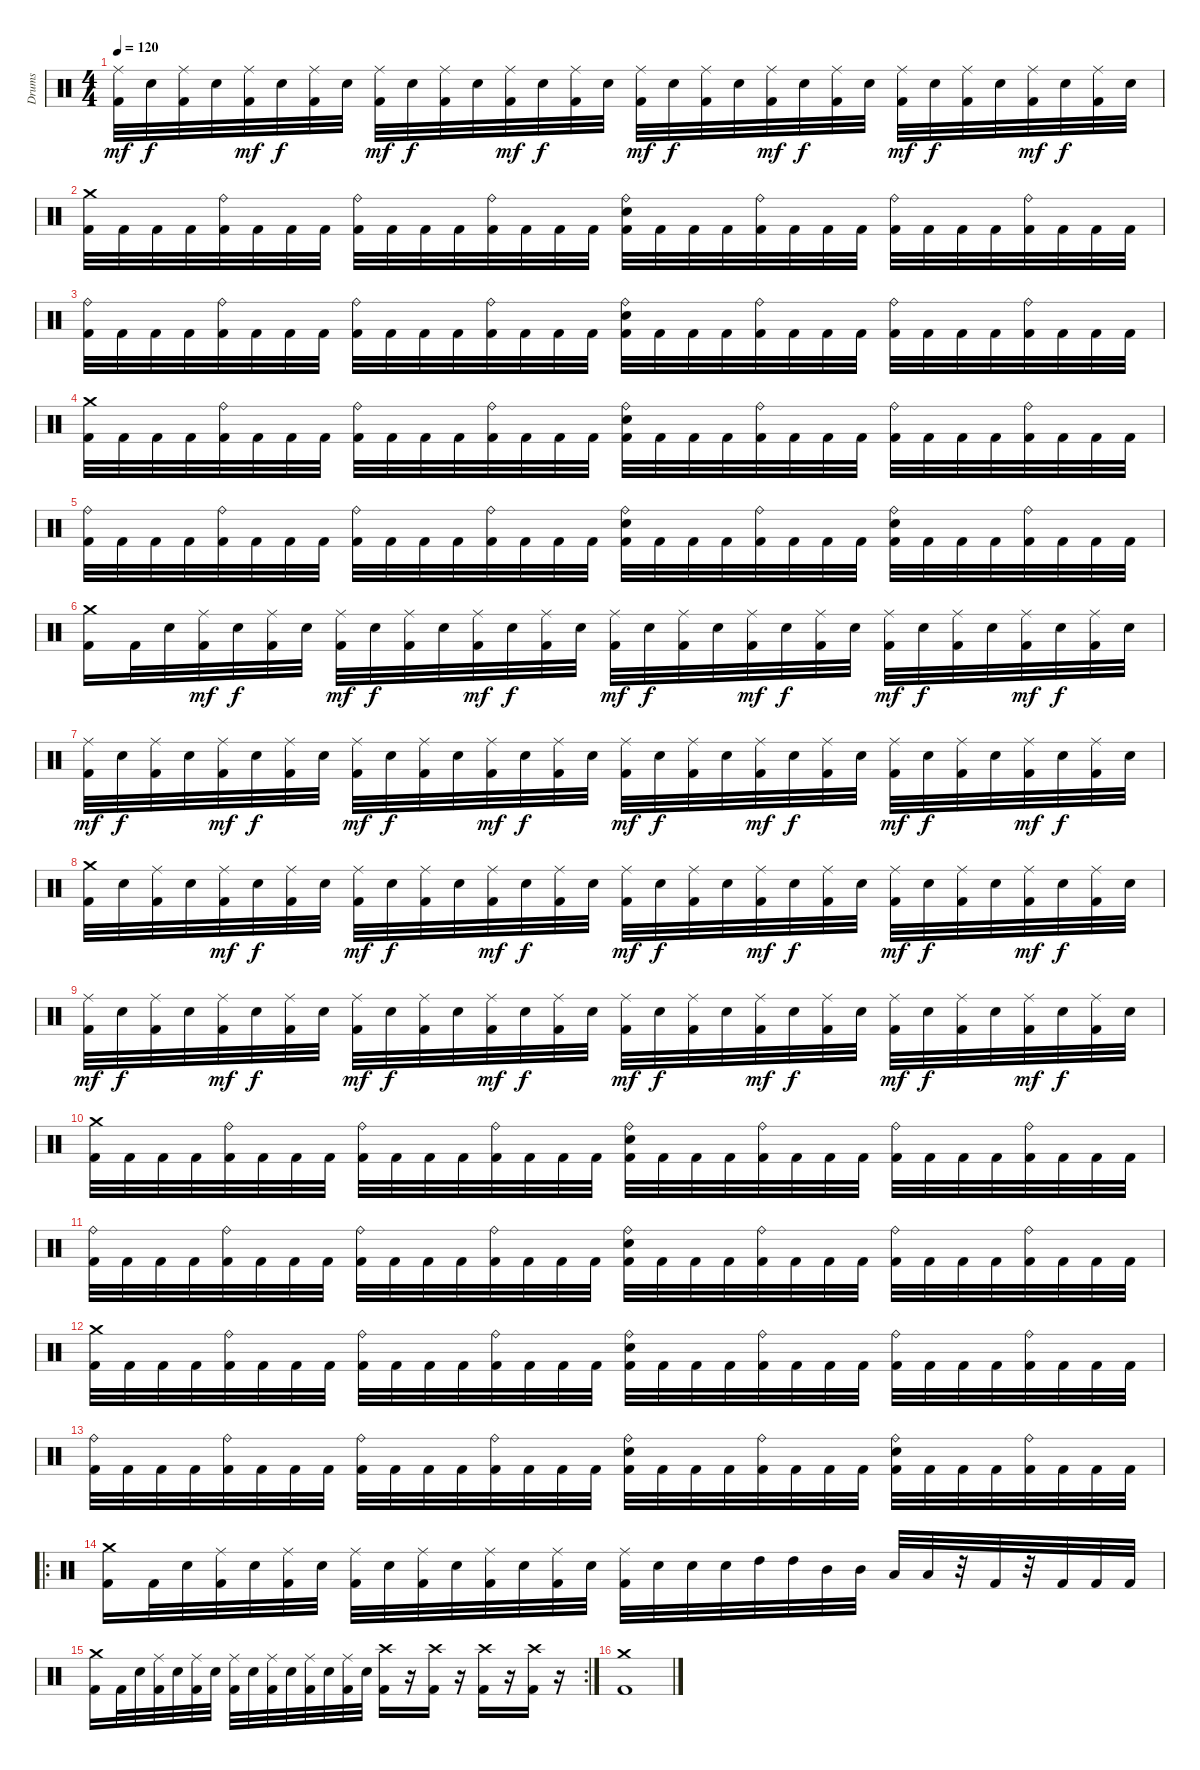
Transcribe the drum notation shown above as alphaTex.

\track ("Drums" "Drums") {instrument percussion}
\staff {score}
\articulation defaults
\ts (4 4)
\tempo 120
\clef neutral
\ks c
("Kick (hit) 2" "Ride (middle)").32{dy mf} "Electric Snare (hit)".32{dy f} ("Kick (hit) 2" "Ride (middle)").32 "Electric Snare (hit)".32 ("Kick (hit) 2" "Ride (middle)").32{dy mf} "Electric Snare (hit)".32{dy f} ("Kick (hit) 2" "Ride (middle)").32 "Electric Snare (hit)".32 ("Kick (hit) 2" "Ride (middle)").32{dy mf} "Electric Snare (hit)".32{dy f} ("Kick (hit) 2" "Ride (middle)").32 "Electric Snare (hit)".32 ("Kick (hit) 2" "Ride (middle)").32{dy mf} "Electric Snare (hit)".32{dy f} ("Kick (hit) 2" "Ride (middle)").32 "Electric Snare (hit)".32 ("Kick (hit) 2" "Ride (middle)").32{dy mf} "Electric Snare (hit)".32{dy f} ("Kick (hit) 2" "Ride (middle)").32 "Electric Snare (hit)".32 ("Kick (hit) 2" "Ride (middle)").32{dy mf} "Electric Snare (hit)".32{dy f} ("Kick (hit) 2" "Ride (middle)").32 "Electric Snare (hit)".32 ("Kick (hit) 2" "Ride (middle)").32{dy mf} "Electric Snare (hit)".32{dy f} ("Kick (hit) 2" "Ride (middle)").32 "Electric Snare (hit)".32 ("Kick (hit) 2" "Ride (middle)").32{dy mf} "Electric Snare (hit)".32{dy f} ("Kick (hit) 2" "Ride (middle)").32 "Electric Snare (hit)".32 |
("Crash medium (hit)" "Kick (hit) 2").32 "Kick (hit) 2".32 "Kick (hit) 2".32 "Kick (hit) 2".32 ("Ride (bell)" "Kick (hit) 2").32 "Kick (hit) 2".32 "Kick (hit) 2".32 "Kick (hit) 2".32 ("Ride (bell)" "Kick (hit) 2").32 "Kick (hit) 2".32 "Kick (hit) 2".32 "Kick (hit) 2".32 ("Ride (bell)" "Kick (hit) 2").32 "Kick (hit) 2".32 "Kick (hit) 2".32 "Kick (hit) 2".32 ("Ride (bell)" "Electric Snare (hit)" "Kick (hit) 2").32 "Kick (hit) 2".32 "Kick (hit) 2".32 "Kick (hit) 2".32 ("Ride (bell)" "Kick (hit) 2").32 "Kick (hit) 2".32 "Kick (hit) 2".32 "Kick (hit) 2".32 ("Ride (bell)" "Kick (hit) 2").32 "Kick (hit) 2".32 "Kick (hit) 2".32 "Kick (hit) 2".32 ("Ride (bell)" "Kick (hit) 2").32 "Kick (hit) 2".32 "Kick (hit) 2".32 "Kick (hit) 2".32 |
("Ride (bell)" "Kick (hit) 2").32 "Kick (hit) 2".32 "Kick (hit) 2".32 "Kick (hit) 2".32 ("Ride (bell)" "Kick (hit) 2").32 "Kick (hit) 2".32 "Kick (hit) 2".32 "Kick (hit) 2".32 ("Ride (bell)" "Kick (hit) 2").32 "Kick (hit) 2".32 "Kick (hit) 2".32 "Kick (hit) 2".32 ("Ride (bell)" "Kick (hit) 2").32 "Kick (hit) 2".32 "Kick (hit) 2".32 "Kick (hit) 2".32 ("Ride (bell)" "Electric Snare (hit)" "Kick (hit) 2").32 "Kick (hit) 2".32 "Kick (hit) 2".32 "Kick (hit) 2".32 ("Ride (bell)" "Kick (hit) 2").32 "Kick (hit) 2".32 "Kick (hit) 2".32 "Kick (hit) 2".32 ("Ride (bell)" "Kick (hit) 2").32 "Kick (hit) 2".32 "Kick (hit) 2".32 "Kick (hit) 2".32 ("Ride (bell)" "Kick (hit) 2").32 "Kick (hit) 2".32 "Kick (hit) 2".32 "Kick (hit) 2".32 |
("Crash medium (hit)" "Kick (hit) 2").32 "Kick (hit) 2".32 "Kick (hit) 2".32 "Kick (hit) 2".32 ("Ride (bell)" "Kick (hit) 2").32 "Kick (hit) 2".32 "Kick (hit) 2".32 "Kick (hit) 2".32 ("Ride (bell)" "Kick (hit) 2").32 "Kick (hit) 2".32 "Kick (hit) 2".32 "Kick (hit) 2".32 ("Ride (bell)" "Kick (hit) 2").32 "Kick (hit) 2".32 "Kick (hit) 2".32 "Kick (hit) 2".32 ("Ride (bell)" "Electric Snare (hit)" "Kick (hit) 2").32 "Kick (hit) 2".32 "Kick (hit) 2".32 "Kick (hit) 2".32 ("Ride (bell)" "Kick (hit) 2").32 "Kick (hit) 2".32 "Kick (hit) 2".32 "Kick (hit) 2".32 ("Ride (bell)" "Kick (hit) 2").32 "Kick (hit) 2".32 "Kick (hit) 2".32 "Kick (hit) 2".32 ("Ride (bell)" "Kick (hit) 2").32 "Kick (hit) 2".32 "Kick (hit) 2".32 "Kick (hit) 2".32 |
("Ride (bell)" "Kick (hit) 2").32 "Kick (hit) 2".32 "Kick (hit) 2".32 "Kick (hit) 2".32 ("Ride (bell)" "Kick (hit) 2").32 "Kick (hit) 2".32 "Kick (hit) 2".32 "Kick (hit) 2".32 ("Ride (bell)" "Kick (hit) 2").32 "Kick (hit) 2".32 "Kick (hit) 2".32 "Kick (hit) 2".32 ("Ride (bell)" "Kick (hit) 2").32 "Kick (hit) 2".32 "Kick (hit) 2".32 "Kick (hit) 2".32 ("Ride (bell)" "Electric Snare (hit)" "Kick (hit) 2").32 "Kick (hit) 2".32 "Kick (hit) 2".32 "Kick (hit) 2".32 ("Ride (bell)" "Kick (hit) 2").32 "Kick (hit) 2".32 "Kick (hit) 2".32 "Kick (hit) 2".32 ("Ride (bell)" "Electric Snare (hit)" "Kick (hit) 2").32 "Kick (hit) 2".32 "Kick (hit) 2".32 "Kick (hit) 2".32 ("Ride (bell)" "Kick (hit) 2").32 "Kick (hit) 2".32 "Kick (hit) 2".32 "Kick (hit) 2".32 |
("Kick (hit) 2" "Crash medium (hit)").16 "Kick (hit) 2".32 "Electric Snare (hit)".32 ("Kick (hit) 2" "Ride (middle)").32{dy mf} "Electric Snare (hit)".32{dy f} ("Kick (hit) 2" "Ride (middle)").32 "Electric Snare (hit)".32 ("Kick (hit) 2" "Ride (middle)").32{dy mf} "Electric Snare (hit)".32{dy f} ("Kick (hit) 2" "Ride (middle)").32 "Electric Snare (hit)".32 ("Kick (hit) 2" "Ride (middle)").32{dy mf} "Electric Snare (hit)".32{dy f} ("Kick (hit) 2" "Ride (middle)").32 "Electric Snare (hit)".32 ("Kick (hit) 2" "Ride (middle)").32{dy mf} "Electric Snare (hit)".32{dy f} ("Kick (hit) 2" "Ride (middle)").32 "Electric Snare (hit)".32 ("Kick (hit) 2" "Ride (middle)").32{dy mf} "Electric Snare (hit)".32{dy f} ("Kick (hit) 2" "Ride (middle)").32 "Electric Snare (hit)".32 ("Kick (hit) 2" "Ride (middle)").32{dy mf} "Electric Snare (hit)".32{dy f} ("Kick (hit) 2" "Ride (middle)").32 "Electric Snare (hit)".32 ("Kick (hit) 2" "Ride (middle)").32{dy mf} "Electric Snare (hit)".32{dy f} ("Kick (hit) 2" "Ride (middle)").32 "Electric Snare (hit)".32 |
("Kick (hit) 2" "Ride (middle)").32{dy mf} "Electric Snare (hit)".32{dy f} ("Kick (hit) 2" "Ride (middle)").32 "Electric Snare (hit)".32 ("Kick (hit) 2" "Ride (middle)").32{dy mf} "Electric Snare (hit)".32{dy f} ("Kick (hit) 2" "Ride (middle)").32 "Electric Snare (hit)".32 ("Kick (hit) 2" "Ride (middle)").32{dy mf} "Electric Snare (hit)".32{dy f} ("Kick (hit) 2" "Ride (middle)").32 "Electric Snare (hit)".32 ("Kick (hit) 2" "Ride (middle)").32{dy mf} "Electric Snare (hit)".32{dy f} ("Kick (hit) 2" "Ride (middle)").32 "Electric Snare (hit)".32 ("Kick (hit) 2" "Ride (middle)").32{dy mf} "Electric Snare (hit)".32{dy f} ("Kick (hit) 2" "Ride (middle)").32 "Electric Snare (hit)".32 ("Kick (hit) 2" "Ride (middle)").32{dy mf} "Electric Snare (hit)".32{dy f} ("Kick (hit) 2" "Ride (middle)").32 "Electric Snare (hit)".32 ("Kick (hit) 2" "Ride (middle)").32{dy mf} "Electric Snare (hit)".32{dy f} ("Kick (hit) 2" "Ride (middle)").32 "Electric Snare (hit)".32 ("Kick (hit) 2" "Ride (middle)").32{dy mf} "Electric Snare (hit)".32{dy f} ("Kick (hit) 2" "Ride (middle)").32 "Electric Snare (hit)".32 |
("Kick (hit) 2" "Crash medium (hit)").32 "Electric Snare (hit)".32 ("Kick (hit) 2" "Ride (middle)").32 "Electric Snare (hit)".32 ("Kick (hit) 2" "Ride (middle)").32{dy mf} "Electric Snare (hit)".32{dy f} ("Kick (hit) 2" "Ride (middle)").32 "Electric Snare (hit)".32 ("Kick (hit) 2" "Ride (middle)").32{dy mf} "Electric Snare (hit)".32{dy f} ("Kick (hit) 2" "Ride (middle)").32 "Electric Snare (hit)".32 ("Kick (hit) 2" "Ride (middle)").32{dy mf} "Electric Snare (hit)".32{dy f} ("Kick (hit) 2" "Ride (middle)").32 "Electric Snare (hit)".32 ("Kick (hit) 2" "Ride (middle)").32{dy mf} "Electric Snare (hit)".32{dy f} ("Kick (hit) 2" "Ride (middle)").32 "Electric Snare (hit)".32 ("Kick (hit) 2" "Ride (middle)").32{dy mf} "Electric Snare (hit)".32{dy f} ("Kick (hit) 2" "Ride (middle)").32 "Electric Snare (hit)".32 ("Kick (hit) 2" "Ride (middle)").32{dy mf} "Electric Snare (hit)".32{dy f} ("Kick (hit) 2" "Ride (middle)").32 "Electric Snare (hit)".32 ("Kick (hit) 2" "Ride (middle)").32{dy mf} "Electric Snare (hit)".32{dy f} ("Kick (hit) 2" "Ride (middle)").32 "Electric Snare (hit)".32 |
("Kick (hit) 2" "Ride (middle)").32{dy mf} "Electric Snare (hit)".32{dy f} ("Kick (hit) 2" "Ride (middle)").32 "Electric Snare (hit)".32 ("Kick (hit) 2" "Ride (middle)").32{dy mf} "Electric Snare (hit)".32{dy f} ("Kick (hit) 2" "Ride (middle)").32 "Electric Snare (hit)".32 ("Kick (hit) 2" "Ride (middle)").32{dy mf} "Electric Snare (hit)".32{dy f} ("Kick (hit) 2" "Ride (middle)").32 "Electric Snare (hit)".32 ("Kick (hit) 2" "Ride (middle)").32{dy mf} "Electric Snare (hit)".32{dy f} ("Kick (hit) 2" "Ride (middle)").32 "Electric Snare (hit)".32 ("Kick (hit) 2" "Ride (middle)").32{dy mf} "Electric Snare (hit)".32{dy f} ("Kick (hit) 2" "Ride (middle)").32 "Electric Snare (hit)".32 ("Kick (hit) 2" "Ride (middle)").32{dy mf} "Electric Snare (hit)".32{dy f} ("Kick (hit) 2" "Ride (middle)").32 "Electric Snare (hit)".32 ("Kick (hit) 2" "Ride (middle)").32{dy mf} "Electric Snare (hit)".32{dy f} ("Kick (hit) 2" "Ride (middle)").32 "Electric Snare (hit)".32 ("Kick (hit) 2" "Ride (middle)").32{dy mf} "Electric Snare (hit)".32{dy f} ("Kick (hit) 2" "Ride (middle)").32 "Electric Snare (hit)".32 |
("Crash medium (hit)" "Kick (hit) 2").32 "Kick (hit) 2".32 "Kick (hit) 2".32 "Kick (hit) 2".32 ("Ride (bell)" "Kick (hit) 2").32 "Kick (hit) 2".32 "Kick (hit) 2".32 "Kick (hit) 2".32 ("Ride (bell)" "Kick (hit) 2").32 "Kick (hit) 2".32 "Kick (hit) 2".32 "Kick (hit) 2".32 ("Ride (bell)" "Kick (hit) 2").32 "Kick (hit) 2".32 "Kick (hit) 2".32 "Kick (hit) 2".32 ("Ride (bell)" "Electric Snare (hit)" "Kick (hit) 2").32 "Kick (hit) 2".32 "Kick (hit) 2".32 "Kick (hit) 2".32 ("Ride (bell)" "Kick (hit) 2").32 "Kick (hit) 2".32 "Kick (hit) 2".32 "Kick (hit) 2".32 ("Ride (bell)" "Kick (hit) 2").32 "Kick (hit) 2".32 "Kick (hit) 2".32 "Kick (hit) 2".32 ("Ride (bell)" "Kick (hit) 2").32 "Kick (hit) 2".32 "Kick (hit) 2".32 "Kick (hit) 2".32 |
("Ride (bell)" "Kick (hit) 2").32 "Kick (hit) 2".32 "Kick (hit) 2".32 "Kick (hit) 2".32 ("Ride (bell)" "Kick (hit) 2").32 "Kick (hit) 2".32 "Kick (hit) 2".32 "Kick (hit) 2".32 ("Ride (bell)" "Kick (hit) 2").32 "Kick (hit) 2".32 "Kick (hit) 2".32 "Kick (hit) 2".32 ("Ride (bell)" "Kick (hit) 2").32 "Kick (hit) 2".32 "Kick (hit) 2".32 "Kick (hit) 2".32 ("Ride (bell)" "Electric Snare (hit)" "Kick (hit) 2").32 "Kick (hit) 2".32 "Kick (hit) 2".32 "Kick (hit) 2".32 ("Ride (bell)" "Kick (hit) 2").32 "Kick (hit) 2".32 "Kick (hit) 2".32 "Kick (hit) 2".32 ("Ride (bell)" "Kick (hit) 2").32 "Kick (hit) 2".32 "Kick (hit) 2".32 "Kick (hit) 2".32 ("Ride (bell)" "Kick (hit) 2").32 "Kick (hit) 2".32 "Kick (hit) 2".32 "Kick (hit) 2".32 |
("Crash medium (hit)" "Kick (hit) 2").32 "Kick (hit) 2".32 "Kick (hit) 2".32 "Kick (hit) 2".32 ("Ride (bell)" "Kick (hit) 2").32 "Kick (hit) 2".32 "Kick (hit) 2".32 "Kick (hit) 2".32 ("Ride (bell)" "Kick (hit) 2").32 "Kick (hit) 2".32 "Kick (hit) 2".32 "Kick (hit) 2".32 ("Ride (bell)" "Kick (hit) 2").32 "Kick (hit) 2".32 "Kick (hit) 2".32 "Kick (hit) 2".32 ("Ride (bell)" "Electric Snare (hit)" "Kick (hit) 2").32 "Kick (hit) 2".32 "Kick (hit) 2".32 "Kick (hit) 2".32 ("Ride (bell)" "Kick (hit) 2").32 "Kick (hit) 2".32 "Kick (hit) 2".32 "Kick (hit) 2".32 ("Ride (bell)" "Kick (hit) 2").32 "Kick (hit) 2".32 "Kick (hit) 2".32 "Kick (hit) 2".32 ("Ride (bell)" "Kick (hit) 2").32 "Kick (hit) 2".32 "Kick (hit) 2".32 "Kick (hit) 2".32 |
("Ride (bell)" "Kick (hit) 2").32 "Kick (hit) 2".32 "Kick (hit) 2".32 "Kick (hit) 2".32 ("Ride (bell)" "Kick (hit) 2").32 "Kick (hit) 2".32 "Kick (hit) 2".32 "Kick (hit) 2".32 ("Ride (bell)" "Kick (hit) 2").32 "Kick (hit) 2".32 "Kick (hit) 2".32 "Kick (hit) 2".32 ("Ride (bell)" "Kick (hit) 2").32 "Kick (hit) 2".32 "Kick (hit) 2".32 "Kick (hit) 2".32 ("Ride (bell)" "Electric Snare (hit)" "Kick (hit) 2").32 "Kick (hit) 2".32 "Kick (hit) 2".32 "Kick (hit) 2".32 ("Ride (bell)" "Kick (hit) 2").32 "Kick (hit) 2".32 "Kick (hit) 2".32 "Kick (hit) 2".32 ("Ride (bell)" "Electric Snare (hit)" "Kick (hit) 2").32 "Kick (hit) 2".32 "Kick (hit) 2".32 "Kick (hit) 2".32 ("Ride (bell)" "Kick (hit) 2").32 "Kick (hit) 2".32 "Kick (hit) 2".32 "Kick (hit) 2".32 |
\ro
("Kick (hit) 2" "Crash medium (hit)").16 "Kick (hit) 2".32 "Electric Snare (hit)".32 ("Kick (hit) 2" "Ride (middle)").32 "Electric Snare (hit)".32 ("Kick (hit) 2" "Ride (middle)").32 "Electric Snare (hit)".32 ("Kick (hit) 2" "Ride (middle)").32 "Electric Snare (hit)".32 ("Kick (hit) 2" "Ride (middle)").32 "Electric Snare (hit)".32 ("Kick (hit) 2" "Ride (middle)").32 "Electric Snare (hit)".32 ("Kick (hit) 2" "Ride (middle)").32 "Electric Snare (hit)".32 ("Kick (hit) 2" "Ride (middle)").32 "Electric Snare (hit)".32 "Electric Snare (hit)".32 "Electric Snare (hit)".32 "High Tom (hit)".32 "High Tom (hit)".32 "Mid Tom (hit)".32 "Mid Tom (hit)".32 "Low Tom (hit)".32 "Low Tom (hit)".32 r.32 "Kick (hit) 2".32 r.32 "Kick (hit) 2".32 "Kick (hit) 2".32 "Kick (hit) 2".32 |
\rc 2
("Kick (hit) 2" "Crash medium (hit)").16 "Kick (hit) 2".32 "Electric Snare (hit)".32 ("Kick (hit) 2" "Ride (middle)").32 "Electric Snare (hit)".32 ("Kick (hit) 2" "Ride (middle)").32 "Electric Snare (hit)".32 ("Kick (hit) 2" "Ride (middle)").32 "Electric Snare (hit)".32 ("Kick (hit) 2" "Ride (middle)").32 "Electric Snare (hit)".32 ("Kick (hit) 2" "Ride (middle)").32 "Electric Snare (hit)".32 ("Kick (hit) 2" "Ride (middle)").32 "Electric Snare (hit)".32 ("Kick (hit) 2" "Crash high (hit)").16 r.16 ("Kick (hit) 2" "Crash high (hit)").16 r.16 ("Kick (hit) 2" "Crash high (hit)").16 r.16 ("Kick (hit) 2" "Crash high (hit)").16 r.16 |
("Crash medium (hit)" "Kick (hit) 2").1
